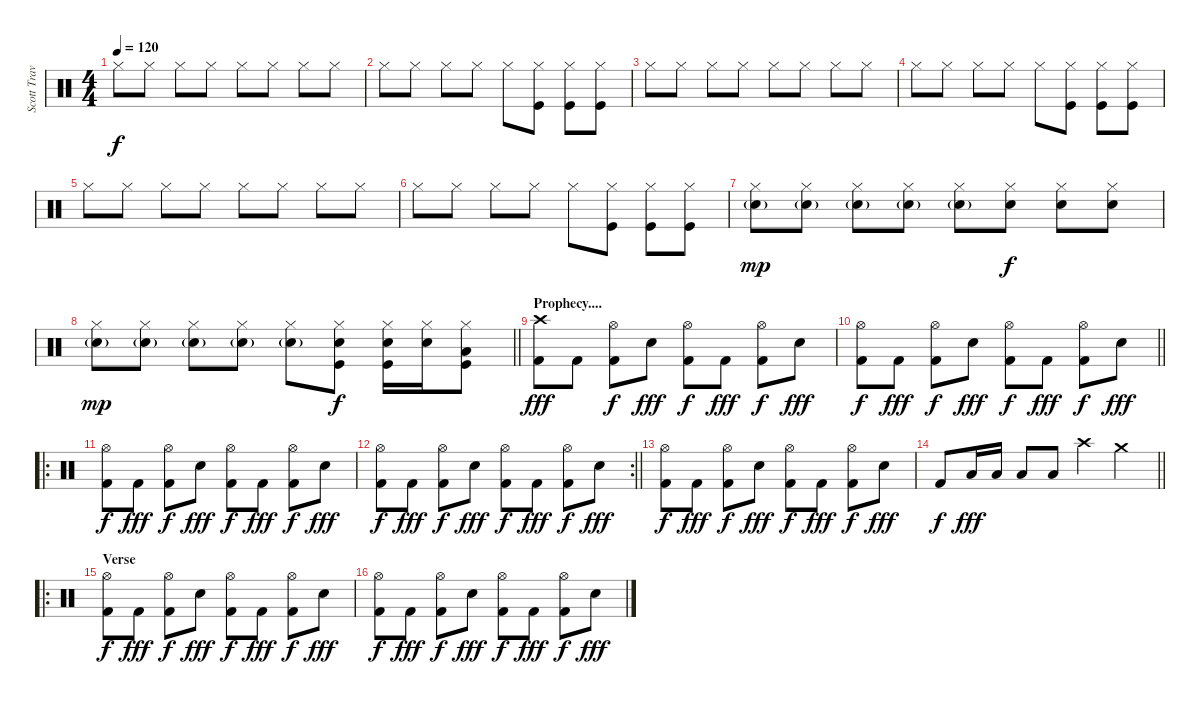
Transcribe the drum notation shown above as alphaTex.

\track ("Scott Travis" "Scott Trav") {instrument percussion}
\staff {score}
\articulation defaults
\ts (4 4)
\tempo 120
\clef neutral
\ks c "Hi-Hat (closed)".8{dy f} "Hi-Hat (closed)".8 "Hi-Hat (closed)".8 "Hi-Hat (closed)".8 "Hi-Hat (closed)".8 "Hi-Hat (closed)".8 "Hi-Hat (closed)".8 "Hi-Hat (closed)".8
|
"Hi-Hat (closed)".8 "Hi-Hat (closed)".8 "Hi-Hat (closed)".8 "Hi-Hat (closed)".8 "Hi-Hat (closed)".8 ("Kick (hit)" "Hi-Hat (closed)").8 ("Kick (hit)" "Hi-Hat (closed)").8 ("Kick (hit)" "Hi-Hat (closed)").8 |
"Hi-Hat (closed)".8 "Hi-Hat (closed)".8 "Hi-Hat (closed)".8 "Hi-Hat (closed)".8 "Hi-Hat (closed)".8 "Hi-Hat (closed)".8 "Hi-Hat (closed)".8 "Hi-Hat (closed)".8 |
"Hi-Hat (closed)".8 "Hi-Hat (closed)".8 "Hi-Hat (closed)".8 "Hi-Hat (closed)".8 "Hi-Hat (closed)".8 ("Kick (hit)" "Hi-Hat (closed)").8 ("Kick (hit)" "Hi-Hat (closed)").8 ("Kick (hit)" "Hi-Hat (closed)").8 |
"Hi-Hat (closed)".8 "Hi-Hat (closed)".8 "Hi-Hat (closed)".8 "Hi-Hat (closed)".8 "Hi-Hat (closed)".8 "Hi-Hat (closed)".8 "Hi-Hat (closed)".8 "Hi-Hat (closed)".8 |
"Hi-Hat (closed)".8 "Hi-Hat (closed)".8 "Hi-Hat (closed)".8 "Hi-Hat (closed)".8 "Hi-Hat (closed)".8 ("Kick (hit)" "Hi-Hat (closed)").8 ("Kick (hit)" "Hi-Hat (closed)").8 ("Kick (hit)" "Hi-Hat (closed)").8 |
("Electric Snare (hit)"{g} "Hi-Hat (closed)").8{dy mp} ("Electric Snare (hit)"{g} "Hi-Hat (closed)").8 ("Electric Snare (hit)"{g} "Hi-Hat (closed)").8 ("Electric Snare (hit)"{g} "Hi-Hat (closed)").8 ("Electric Snare (hit)"{g} "Hi-Hat (closed)").8 ("Electric Snare (hit)" "Hi-Hat (closed)").8{dy f} ("Electric Snare (hit)" "Hi-Hat (closed)").8 ("Electric Snare (hit)" "Hi-Hat (closed)").8 |
\barLineRight lightlight
("Electric Snare (hit)"{g} "Hi-Hat (closed)").8{dy mp} ("Electric Snare (hit)"{g} "Hi-Hat (closed)").8 ("Electric Snare (hit)"{g} "Hi-Hat (closed)").8 ("Electric Snare (hit)"{g} "Hi-Hat (closed)").8 ("Electric Snare (hit)"{g} "Hi-Hat (closed)").8 ("Kick (hit)" "Electric Snare (hit)" "Hi-Hat (closed)").8{dy f} ("Kick (hit)" "Electric Snare (hit)" "Hi-Hat (closed)").16 ("Electric Snare (hit)" "Hi-Hat (closed)").16 ("Kick (hit)" "Low Tom (hit)" "Hi-Hat (closed)").8 |
\section ("" "Prophecy....")
("Crash high (hit)" "Kick (hit) 2").8{dy fff} "Kick (hit) 2".8 ("Hi-Hat (open)" "Kick (hit) 2").8{dy f} "Electric Snare (hit)".8{dy fff} ("Hi-Hat (open)" "Kick (hit) 2").8{dy f} "Kick (hit) 2".8{dy fff} ("Hi-Hat (open)" "Kick (hit) 2").8{dy f} "Electric Snare (hit)".8{dy fff} |
\barLineRight lightlight
("Hi-Hat (open)" "Kick (hit) 2").8{dy f} "Kick (hit) 2".8{dy fff} ("Hi-Hat (open)" "Kick (hit) 2").8{dy f} "Electric Snare (hit)".8{dy fff} ("Hi-Hat (open)" "Kick (hit) 2").8{dy f} "Kick (hit) 2".8{dy fff} ("Hi-Hat (open)" "Kick (hit) 2").8{dy f} "Electric Snare (hit)".8{dy fff} |
\ro
("Hi-Hat (open)" "Kick (hit) 2").8{dy f} "Kick (hit) 2".8{dy fff} ("Hi-Hat (open)" "Kick (hit) 2").8{dy f} "Electric Snare (hit)".8{dy fff} ("Hi-Hat (open)" "Kick (hit) 2").8{dy f} "Kick (hit) 2".8{dy fff} ("Hi-Hat (open)" "Kick (hit) 2").8{dy f} "Electric Snare (hit)".8{dy fff} |
\rc 2
\barLineRight lightlight
("Hi-Hat (open)" "Kick (hit) 2").8{dy f} "Kick (hit) 2".8{dy fff} ("Hi-Hat (open)" "Kick (hit) 2").8{dy f} "Electric Snare (hit)".8{dy fff} ("Hi-Hat (open)" "Kick (hit) 2").8{dy f} "Kick (hit) 2".8{dy fff} ("Hi-Hat (open)" "Kick (hit) 2").8{dy f} "Electric Snare (hit)".8{dy fff} |
("Hi-Hat (open)" "Kick (hit) 2").8{dy f} "Kick (hit) 2".8{dy fff} ("Hi-Hat (open)" "Kick (hit) 2").8{dy f} "Electric Snare (hit)".8{dy fff} ("Hi-Hat (open)" "Kick (hit) 2").8{dy f} "Kick (hit) 2".8{dy fff} ("Hi-Hat (open)" "Kick (hit) 2").8{dy f} "Electric Snare (hit)".8{dy fff} |
\barLineRight lightlight "Kick (hit) 2".8{dy f} "Low Tom (hit)".16{dy fff} "Low Tom (hit)".16 "Low Tom (hit)".8 "Low Tom (hit)".8 "Crash high (hit)".4 "Crash medium (hit)".4
|
\ro
\section ("" "Verse")
("Hi-Hat (open)" "Kick (hit) 2").8{dy f} "Kick (hit) 2".8{dy fff} ("Hi-Hat (open)" "Kick (hit) 2").8{dy f} "Electric Snare (hit)".8{dy fff} ("Hi-Hat (open)" "Kick (hit) 2").8{dy f} "Kick (hit) 2".8{dy fff} ("Hi-Hat (open)" "Kick (hit) 2").8{dy f} "Electric Snare (hit)".8{dy fff} |
("Hi-Hat (open)" "Kick (hit) 2").8{dy f} "Kick (hit) 2".8{dy fff} ("Hi-Hat (open)" "Kick (hit) 2").8{dy f} "Electric Snare (hit)".8{dy fff} ("Hi-Hat (open)" "Kick (hit) 2").8{dy f} "Kick (hit) 2".8{dy fff} ("Hi-Hat (open)" "Kick (hit) 2").8{dy f} "Electric Snare (hit)".8{dy fff}
